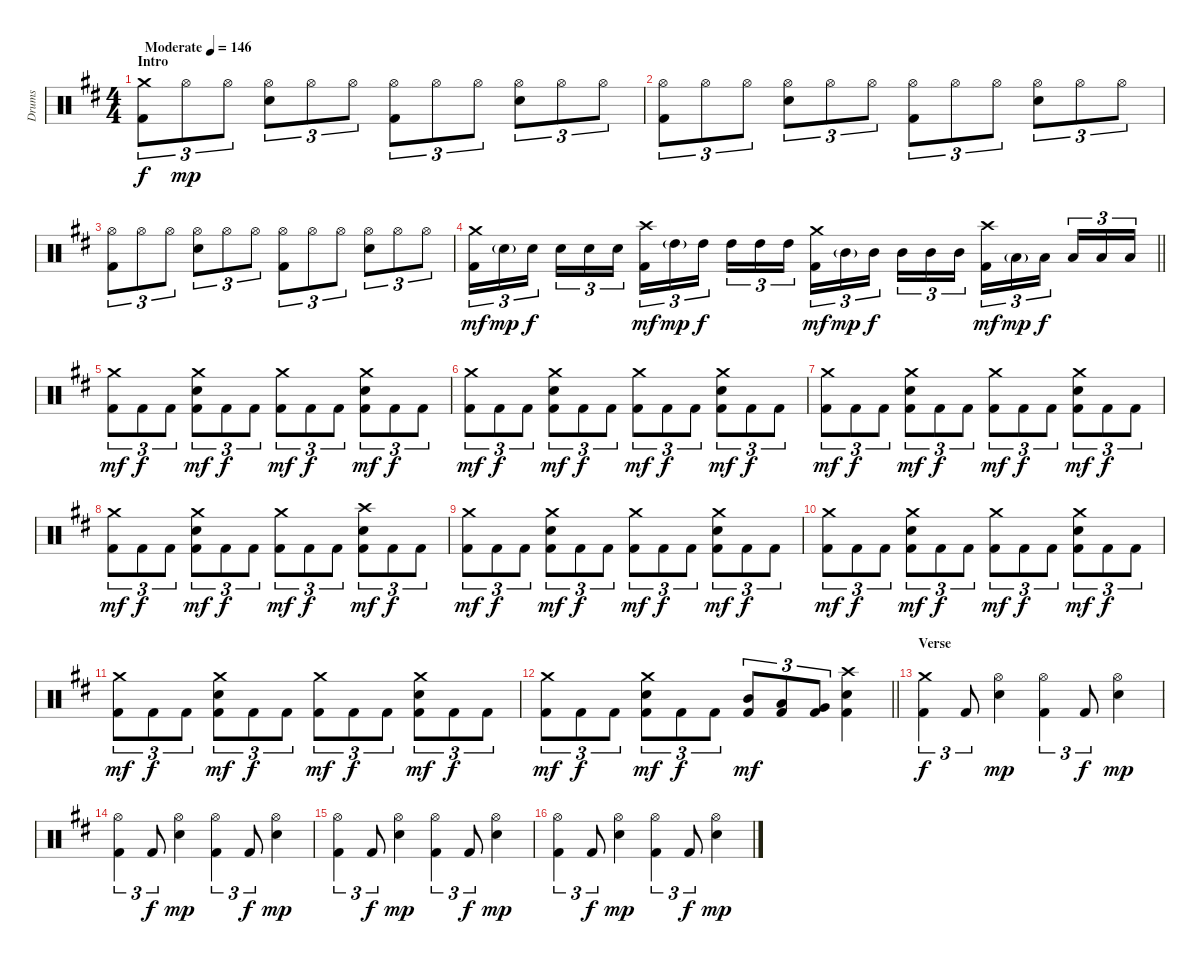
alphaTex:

\track ("Drums" "Drums") {instrument percussion}
\staff {score}
\articulation defaults
\ts (4 4)
\section ("" "Intro")
\tempo (146 "Moderate")
\clef neutral
\ks bminor
("Crash medium (hit)" "Kick (hit) 2").8{tu (3 2) dy f} "Hi-Hat (open)".8{tu (3 2) dy mp} "Hi-Hat (open)".8{tu (3 2)} ("Hi-Hat (open)" "Electric Snare (hit)").8{tu (3 2)} "Hi-Hat (open)".8{tu (3 2)} "Hi-Hat (open)".8{tu (3 2)} ("Hi-Hat (open)" "Kick (hit) 2").8{tu (3 2)} "Hi-Hat (open)".8{tu (3 2)} "Hi-Hat (open)".8{tu (3 2)} ("Hi-Hat (open)" "Electric Snare (hit)").8{tu (3 2)} "Hi-Hat (open)".8{tu (3 2)} "Hi-Hat (open)".8{tu (3 2)} |
("Hi-Hat (open)" "Kick (hit) 2").8{tu (3 2)} "Hi-Hat (open)".8{tu (3 2)} "Hi-Hat (open)".8{tu (3 2)} ("Hi-Hat (open)" "Electric Snare (hit)").8{tu (3 2)} "Hi-Hat (open)".8{tu (3 2)} "Hi-Hat (open)".8{tu (3 2)} ("Hi-Hat (open)" "Kick (hit) 2").8{tu (3 2)} "Hi-Hat (open)".8{tu (3 2)} "Hi-Hat (open)".8{tu (3 2)} ("Hi-Hat (open)" "Electric Snare (hit)").8{tu (3 2)} "Hi-Hat (open)".8{tu (3 2)} "Hi-Hat (open)".8{tu (3 2)} |
("Hi-Hat (open)" "Kick (hit) 2").8{tu (3 2)} "Hi-Hat (open)".8{tu (3 2)} "Hi-Hat (open)".8{tu (3 2)} ("Hi-Hat (open)" "Electric Snare (hit)").8{tu (3 2)} "Hi-Hat (open)".8{tu (3 2)} "Hi-Hat (open)".8{tu (3 2)} ("Hi-Hat (open)" "Kick (hit) 2").8{tu (3 2)} "Hi-Hat (open)".8{tu (3 2)} "Hi-Hat (open)".8{tu (3 2)} ("Hi-Hat (open)" "Electric Snare (hit)").8{tu (3 2)} "Hi-Hat (open)".8{tu (3 2)} "Hi-Hat (open)".8{tu (3 2)} |
\barLineRight lightlight
("Crash medium (hit)" "Kick (hit) 2").16{tu (3 2) dy mf} "Electric Snare (hit)"{g}.16{tu (3 2) dy mp} "Electric Snare (hit)".16{tu (3 2) dy f beam splitsecondary} "Electric Snare (hit)".16{tu (3 2)} "Electric Snare (hit)".16{tu (3 2)} "Electric Snare (hit)".16{tu (3 2)} ("Crash high (hit)" "Kick (hit) 2").16{tu (3 2) dy mf} "High Tom (hit)"{g}.16{tu (3 2) dy mp} "High Tom (hit)".16{tu (3 2) dy f beam splitsecondary} "High Tom (hit)".16{tu (3 2)} "High Tom (hit)".16{tu (3 2)} "High Tom (hit)".16{tu (3 2)} ("Crash medium (hit)" "Kick (hit) 2").16{tu (3 2) dy mf} "Mid Tom (hit)"{g}.16{tu (3 2) dy mp} "Mid Tom (hit)".16{tu (3 2) dy f beam splitsecondary} "Mid Tom (hit)".16{tu (3 2)} "Mid Tom (hit)".16{tu (3 2)} "Mid Tom (hit)".16{tu (3 2)} ("Crash high (hit)" "Kick (hit) 2").16{tu (3 2) dy mf} "Low Tom (hit)"{g}.16{tu (3 2) dy mp} "Low Tom (hit)".16{tu (3 2) dy f beam splitsecondary} "Low Tom (hit)".16{tu (3 2)} "Low Tom (hit)".16{tu (3 2)} "Low Tom (hit)".16{tu (3 2)} |
\section ("" "")
("Crash medium (hit)" "Kick (hit) 2").8{tu (3 2) dy mf} "Kick (hit) 2".8{tu (3 2) dy f} "Kick (hit) 2".8{tu (3 2)} ("Crash medium (hit)" "Electric Snare (hit)" "Kick (hit) 2").8{tu (3 2) dy mf} "Kick (hit) 2".8{tu (3 2) dy f} "Kick (hit) 2".8{tu (3 2)} ("Crash medium (hit)" "Kick (hit) 2").8{tu (3 2) dy mf} "Kick (hit) 2".8{tu (3 2) dy f} "Kick (hit) 2".8{tu (3 2)} ("Crash medium (hit)" "Electric Snare (hit)" "Kick (hit) 2").8{tu (3 2) dy mf} "Kick (hit) 2".8{tu (3 2) dy f} "Kick (hit) 2".8{tu (3 2)} |
("Crash medium (hit)" "Kick (hit) 2").8{tu (3 2) dy mf} "Kick (hit) 2".8{tu (3 2) dy f} "Kick (hit) 2".8{tu (3 2)} ("Crash medium (hit)" "Electric Snare (hit)" "Kick (hit) 2").8{tu (3 2) dy mf} "Kick (hit) 2".8{tu (3 2) dy f} "Kick (hit) 2".8{tu (3 2)} ("Crash medium (hit)" "Kick (hit) 2").8{tu (3 2) dy mf} "Kick (hit) 2".8{tu (3 2) dy f} "Kick (hit) 2".8{tu (3 2)} ("Crash medium (hit)" "Electric Snare (hit)" "Kick (hit) 2").8{tu (3 2) dy mf} "Kick (hit) 2".8{tu (3 2) dy f} "Kick (hit) 2".8{tu (3 2)} |
("Crash medium (hit)" "Kick (hit) 2").8{tu (3 2) dy mf} "Kick (hit) 2".8{tu (3 2) dy f} "Kick (hit) 2".8{tu (3 2)} ("Crash medium (hit)" "Electric Snare (hit)" "Kick (hit) 2").8{tu (3 2) dy mf} "Kick (hit) 2".8{tu (3 2) dy f} "Kick (hit) 2".8{tu (3 2)} ("Crash medium (hit)" "Kick (hit) 2").8{tu (3 2) dy mf} "Kick (hit) 2".8{tu (3 2) dy f} "Kick (hit) 2".8{tu (3 2)} ("Crash medium (hit)" "Electric Snare (hit)" "Kick (hit) 2").8{tu (3 2) dy mf} "Kick (hit) 2".8{tu (3 2) dy f} "Kick (hit) 2".8{tu (3 2)} |
("Crash medium (hit)" "Kick (hit) 2").8{tu (3 2) dy mf} "Kick (hit) 2".8{tu (3 2) dy f} "Kick (hit) 2".8{tu (3 2)} ("Crash medium (hit)" "Electric Snare (hit)" "Kick (hit) 2").8{tu (3 2) dy mf} "Kick (hit) 2".8{tu (3 2) dy f} "Kick (hit) 2".8{tu (3 2)} ("Crash medium (hit)" "Kick (hit) 2").8{tu (3 2) dy mf} "Kick (hit) 2".8{tu (3 2) dy f} "Kick (hit) 2".8{tu (3 2)} ("Crash high (hit)" "Electric Snare (hit)" "Kick (hit) 2").8{tu (3 2) dy mf} "Kick (hit) 2".8{tu (3 2) dy f} "Kick (hit) 2".8{tu (3 2)} |
("Crash medium (hit)" "Kick (hit) 2").8{tu (3 2) dy mf} "Kick (hit) 2".8{tu (3 2) dy f} "Kick (hit) 2".8{tu (3 2)} ("Crash medium (hit)" "Electric Snare (hit)" "Kick (hit) 2").8{tu (3 2) dy mf} "Kick (hit) 2".8{tu (3 2) dy f} "Kick (hit) 2".8{tu (3 2)} ("Crash medium (hit)" "Kick (hit) 2").8{tu (3 2) dy mf} "Kick (hit) 2".8{tu (3 2) dy f} "Kick (hit) 2".8{tu (3 2)} ("Crash medium (hit)" "Electric Snare (hit)" "Kick (hit) 2").8{tu (3 2) dy mf} "Kick (hit) 2".8{tu (3 2) dy f} "Kick (hit) 2".8{tu (3 2)} |
("Crash medium (hit)" "Kick (hit) 2").8{tu (3 2) dy mf} "Kick (hit) 2".8{tu (3 2) dy f} "Kick (hit) 2".8{tu (3 2)} ("Crash medium (hit)" "Electric Snare (hit)" "Kick (hit) 2").8{tu (3 2) dy mf} "Kick (hit) 2".8{tu (3 2) dy f} "Kick (hit) 2".8{tu (3 2)} ("Crash medium (hit)" "Kick (hit) 2").8{tu (3 2) dy mf} "Kick (hit) 2".8{tu (3 2) dy f} "Kick (hit) 2".8{tu (3 2)} ("Crash medium (hit)" "Electric Snare (hit)" "Kick (hit) 2").8{tu (3 2) dy mf} "Kick (hit) 2".8{tu (3 2) dy f} "Kick (hit) 2".8{tu (3 2)} |
("Crash medium (hit)" "Kick (hit) 2").8{tu (3 2) dy mf} "Kick (hit) 2".8{tu (3 2) dy f} "Kick (hit) 2".8{tu (3 2)} ("Crash medium (hit)" "Electric Snare (hit)" "Kick (hit) 2").8{tu (3 2) dy mf} "Kick (hit) 2".8{tu (3 2) dy f} "Kick (hit) 2".8{tu (3 2)} ("Crash medium (hit)" "Kick (hit) 2").8{tu (3 2) dy mf} "Kick (hit) 2".8{tu (3 2) dy f} "Kick (hit) 2".8{tu (3 2)} ("Crash medium (hit)" "Electric Snare (hit)" "Kick (hit) 2").8{tu (3 2) dy mf} "Kick (hit) 2".8{tu (3 2) dy f} "Kick (hit) 2".8{tu (3 2)} |
\barLineRight lightlight
("Crash medium (hit)" "Kick (hit) 2").8{tu (3 2) dy mf} "Kick (hit) 2".8{tu (3 2) dy f} "Kick (hit) 2".8{tu (3 2)} ("Crash medium (hit)" "Electric Snare (hit)" "Kick (hit) 2").8{tu (3 2) dy mf} "Kick (hit) 2".8{tu (3 2) dy f} "Kick (hit) 2".8{tu (3 2)} ("Mid Tom (hit)" "Kick (hit) 2").8{tu (3 2) dy mf} ("Low Tom (hit)" "Kick (hit) 2").8{tu (3 2)} ("Very Low Tom (hit)" "Kick (hit) 2").8{tu (3 2)} ("Crash high (hit)" "Electric Snare (hit)" "Kick (hit) 2").4 |
\section ("" "Verse")
("Crash medium (hit)" "Kick (hit) 2").4{tu (3 2) dy f} "Kick (hit) 2".8{tu (3 2)} ("Hi-Hat (open)" "Electric Snare (hit)").4{dy mp} ("Hi-Hat (open)" "Kick (hit) 2").4{tu (3 2)} "Kick (hit) 2".8{tu (3 2) dy f} ("Hi-Hat (open)" "Electric Snare (hit)").4{dy mp} |
("Hi-Hat (open)" "Kick (hit) 2").4{tu (3 2)} "Kick (hit) 2".8{tu (3 2) dy f} ("Hi-Hat (open)" "Electric Snare (hit)").4{dy mp} ("Hi-Hat (open)" "Kick (hit) 2").4{tu (3 2)} "Kick (hit) 2".8{tu (3 2) dy f} ("Hi-Hat (open)" "Electric Snare (hit)").4{dy mp} |
("Hi-Hat (open)" "Kick (hit) 2").4{tu (3 2)} "Kick (hit) 2".8{tu (3 2) dy f} ("Hi-Hat (open)" "Electric Snare (hit)").4{dy mp} ("Hi-Hat (open)" "Kick (hit) 2").4{tu (3 2)} "Kick (hit) 2".8{tu (3 2) dy f} ("Hi-Hat (open)" "Electric Snare (hit)").4{dy mp} |
("Hi-Hat (open)" "Kick (hit) 2").4{tu (3 2)} "Kick (hit) 2".8{tu (3 2) dy f} ("Hi-Hat (open)" "Electric Snare (hit)").4{dy mp} ("Hi-Hat (open)" "Kick (hit) 2").4{tu (3 2)} "Kick (hit) 2".8{tu (3 2) dy f} ("Hi-Hat (open)" "Electric Snare (hit)").4{dy mp}
